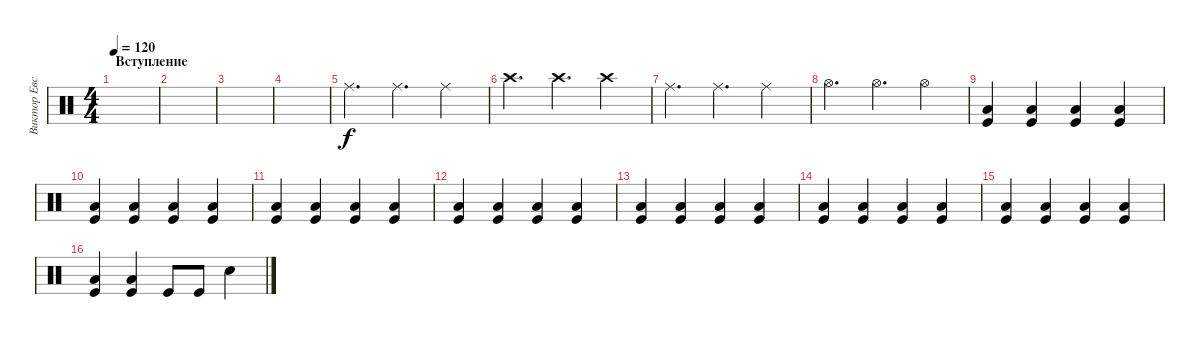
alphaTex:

\track ("Виктор Евстратов" "Виктор Евс") {instrument percussion}
\staff {score}
\articulation defaults
\ts (4 4)
\section ("" "Вступление")
\tempo 120
\clef neutral
\ks c
|
|
|
|
"Ride (middle)".4{d} "Ride (middle)".4{d} "Ride (middle)".4 |
"Crash high (hit)".4{d} "Crash high (hit)".4{d} "Crash high (hit)".4 |
"Ride (middle)".4{d} "Ride (middle)".4{d} "Ride (middle)".4 |
"Hi-Hat (open)".4{d} "Hi-Hat (open)".4{d} "Hi-Hat (open)".4 |
("Kick (hit)" "Low Floor Tom (hit)").4 ("Kick (hit)" "Low Floor Tom (hit)").4 ("Kick (hit)" "Low Floor Tom (hit)").4 ("Kick (hit)" "Low Floor Tom (hit)").4 |
("Kick (hit)" "Low Floor Tom (hit)").4 ("Kick (hit)" "Low Floor Tom (hit)").4 ("Kick (hit)" "Low Floor Tom (hit)").4 ("Kick (hit)" "Low Floor Tom (hit)").4 |
("Kick (hit)" "Low Floor Tom (hit)").4 ("Kick (hit)" "Low Floor Tom (hit)").4 ("Kick (hit)" "Low Floor Tom (hit)").4 ("Kick (hit)" "Low Floor Tom (hit)").4 |
("Kick (hit)" "Low Floor Tom (hit)").4 ("Kick (hit)" "Low Floor Tom (hit)").4 ("Kick (hit)" "Low Floor Tom (hit)").4 ("Kick (hit)" "Low Floor Tom (hit)").4 |
("Kick (hit)" "Low Floor Tom (hit)").4 ("Kick (hit)" "Low Floor Tom (hit)").4 ("Kick (hit)" "Low Floor Tom (hit)").4 ("Kick (hit)" "Low Floor Tom (hit)").4 |
("Kick (hit)" "Low Floor Tom (hit)").4 ("Kick (hit)" "Low Floor Tom (hit)").4 ("Kick (hit)" "Low Floor Tom (hit)").4 ("Kick (hit)" "Low Floor Tom (hit)").4 |
("Kick (hit)" "Low Floor Tom (hit)").4 ("Kick (hit)" "Low Floor Tom (hit)").4 ("Kick (hit)" "Low Floor Tom (hit)").4 ("Kick (hit)" "Low Floor Tom (hit)").4 |
("Kick (hit)" "Low Floor Tom (hit)").4 ("Kick (hit)" "Low Floor Tom (hit)").4 "Kick (hit)".8 "Kick (hit)".8 "Snare (hit) 2".4
